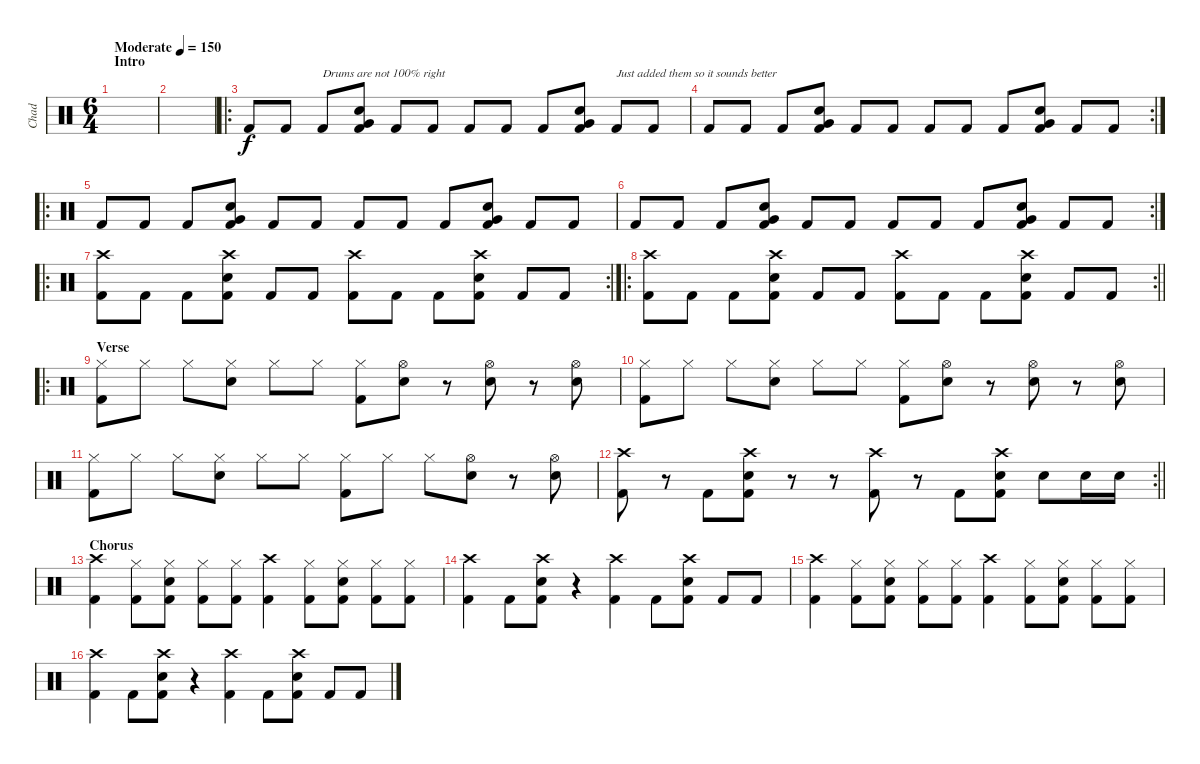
\track ("Chad" "Chad") {instrument percussion}
\staff {score}
\articulation defaults
\ts (6 4)
\section ("" "Intro")
\tempo (150 "Moderate")
\clef neutral
\ks c
|
|
\ro "Kick (hit) 2".8{volume 13} "Kick (hit) 2".8 "Kick (hit) 2".8{txt "Drums are not 100% right"}
("Electric Snare (hit)" "Kick (hit) 2" "Very Low Tom (hit)").8 "Kick (hit) 2".8 "Kick (hit) 2".8 "Kick (hit) 2".8 "Kick (hit) 2".8 "Kick (hit) 2".8 ("Electric Snare (hit)" "Kick (hit) 2" "Very Low Tom (hit)").8 "Kick (hit) 2".8{txt "Just added them so it sounds better"} "Kick (hit) 2".8 |
\rc 2 "Kick (hit) 2".8 "Kick (hit) 2".8 "Kick (hit) 2".8
("Electric Snare (hit)" "Kick (hit) 2" "Very Low Tom (hit)").8 "Kick (hit) 2".8 "Kick (hit) 2".8 "Kick (hit) 2".8 "Kick (hit) 2".8 "Kick (hit) 2".8 ("Electric Snare (hit)" "Kick (hit) 2" "Very Low Tom (hit)").8 "Kick (hit) 2".8 "Kick (hit) 2".8 |
\ro "Kick (hit) 2".8 "Kick (hit) 2".8 "Kick (hit) 2".8
("Electric Snare (hit)" "Kick (hit) 2" "Very Low Tom (hit)").8 "Kick (hit) 2".8 "Kick (hit) 2".8 "Kick (hit) 2".8 "Kick (hit) 2".8 "Kick (hit) 2".8 ("Electric Snare (hit)" "Kick (hit) 2" "Very Low Tom (hit)").8 "Kick (hit) 2".8 "Kick (hit) 2".8 |
\rc 2 "Kick (hit) 2".8 "Kick (hit) 2".8 "Kick (hit) 2".8
("Electric Snare (hit)" "Kick (hit) 2" "Very Low Tom (hit)").8 "Kick (hit) 2".8 "Kick (hit) 2".8 "Kick (hit) 2".8 "Kick (hit) 2".8 "Kick (hit) 2".8 ("Electric Snare (hit)" "Kick (hit) 2" "Very Low Tom (hit)").8 "Kick (hit) 2".8 "Kick (hit) 2".8 |
\ro
\rc 2
("Crash high (hit)" "Kick (hit) 2").8 "Kick (hit) 2".8 "Kick (hit) 2".8 ("Crash high (hit)" "Electric Snare (hit)" "Kick (hit) 2").8 "Kick (hit) 2".8 "Kick (hit) 2".8 ("Crash high (hit)" "Kick (hit) 2").8 "Kick (hit) 2".8 "Kick (hit) 2".8 ("Crash high (hit)" "Electric Snare (hit)" "Kick (hit) 2").8 "Kick (hit) 2".8 "Kick (hit) 2".8 |
\ro
\rc 2
\barLineRight lightlight
("Crash high (hit)" "Kick (hit) 2").8 "Kick (hit) 2".8 "Kick (hit) 2".8 ("Crash high (hit)" "Electric Snare (hit)" "Kick (hit) 2").8 "Kick (hit) 2".8 "Kick (hit) 2".8 ("Crash high (hit)" "Kick (hit) 2").8 "Kick (hit) 2".8 "Kick (hit) 2".8 ("Crash high (hit)" "Electric Snare (hit)" "Kick (hit) 2").8 "Kick (hit) 2".8 "Kick (hit) 2".8 |
\ro
\section ("" "Verse")
("Hi-Hat (closed)" "Kick (hit) 2").8 "Hi-Hat (closed)".8 "Hi-Hat (closed)".8 ("Hi-Hat (closed)" "Electric Snare (hit)").8 "Hi-Hat (closed)".8 "Hi-Hat (closed)".8 ("Hi-Hat (closed)" "Kick (hit) 2").8 ("Hi-Hat (open)" "Electric Snare (hit)").8 r.8 ("Hi-Hat (open)" "Electric Snare (hit)").8 r.8 ("Hi-Hat (open)" "Electric Snare (hit)").8 |
("Hi-Hat (closed)" "Kick (hit) 2").8 "Hi-Hat (closed)".8 "Hi-Hat (closed)".8 ("Hi-Hat (closed)" "Electric Snare (hit)").8 "Hi-Hat (closed)".8 "Hi-Hat (closed)".8 ("Hi-Hat (closed)" "Kick (hit) 2").8 ("Hi-Hat (open)" "Electric Snare (hit)").8 r.8 ("Hi-Hat (open)" "Electric Snare (hit)").8 r.8 ("Hi-Hat (open)" "Electric Snare (hit)").8 |
("Hi-Hat (closed)" "Kick (hit) 2").8 "Hi-Hat (closed)".8 "Hi-Hat (closed)".8 ("Hi-Hat (closed)" "Electric Snare (hit)").8 "Hi-Hat (closed)".8 "Hi-Hat (closed)".8 ("Hi-Hat (closed)" "Kick (hit) 2").8 "Hi-Hat (closed)".8 "Hi-Hat (closed)".8 ("Hi-Hat (open)" "Electric Snare (hit)").8 r.8 ("Hi-Hat (open)" "Electric Snare (hit)").8 |
\rc 2
\barLineRight lightlight
("Crash high (hit)" "Kick (hit) 2").8 r.8 "Kick (hit) 2".8 ("Crash high (hit)" "Electric Snare (hit)" "Kick (hit) 2").8 r.8 r.8 ("Crash high (hit)" "Kick (hit) 2").8 r.8 "Kick (hit) 2".8 ("Crash high (hit)" "Electric Snare (hit)" "Kick (hit) 2").8 "Electric Snare (hit)".8 "Electric Snare (hit)".16 "Electric Snare (hit)".16 |
\section ("" "Chorus")
("Crash high (hit)" "Kick (hit) 2").4 ("Hi-Hat (closed)" "Kick (hit) 2").8 ("Hi-Hat (closed)" "Electric Snare (hit)" "Kick (hit) 2").8 ("Hi-Hat (closed)" "Kick (hit) 2").8 ("Hi-Hat (closed)" "Kick (hit) 2").8 ("Crash high (hit)" "Kick (hit) 2").4 ("Hi-Hat (closed)" "Kick (hit) 2").8 ("Hi-Hat (closed)" "Electric Snare (hit)" "Kick (hit) 2").8 ("Hi-Hat (closed)" "Kick (hit) 2").8 ("Hi-Hat (closed)" "Kick (hit) 2").8 |
("Crash high (hit)" "Kick (hit) 2").4 "Kick (hit) 2".8 ("Crash high (hit)" "Electric Snare (hit)" "Kick (hit) 2").8 r.4 ("Crash high (hit)" "Kick (hit) 2").4 "Kick (hit) 2".8 ("Crash high (hit)" "Electric Snare (hit)" "Kick (hit) 2").8 "Kick (hit) 2".8 "Kick (hit) 2".8 |
("Crash high (hit)" "Kick (hit) 2").4 ("Hi-Hat (closed)" "Kick (hit) 2").8 ("Hi-Hat (closed)" "Electric Snare (hit)" "Kick (hit) 2").8 ("Hi-Hat (closed)" "Kick (hit) 2").8 ("Hi-Hat (closed)" "Kick (hit) 2").8 ("Crash high (hit)" "Kick (hit) 2").4 ("Hi-Hat (closed)" "Kick (hit) 2").8 ("Hi-Hat (closed)" "Electric Snare (hit)" "Kick (hit) 2").8 ("Hi-Hat (closed)" "Kick (hit) 2").8 ("Hi-Hat (closed)" "Kick (hit) 2").8 |
("Crash high (hit)" "Kick (hit) 2").4 "Kick (hit) 2".8 ("Crash high (hit)" "Electric Snare (hit)" "Kick (hit) 2").8 r.4 ("Crash high (hit)" "Kick (hit) 2").4 "Kick (hit) 2".8 ("Crash high (hit)" "Electric Snare (hit)" "Kick (hit) 2").8 "Kick (hit) 2".8 "Kick (hit) 2".8
